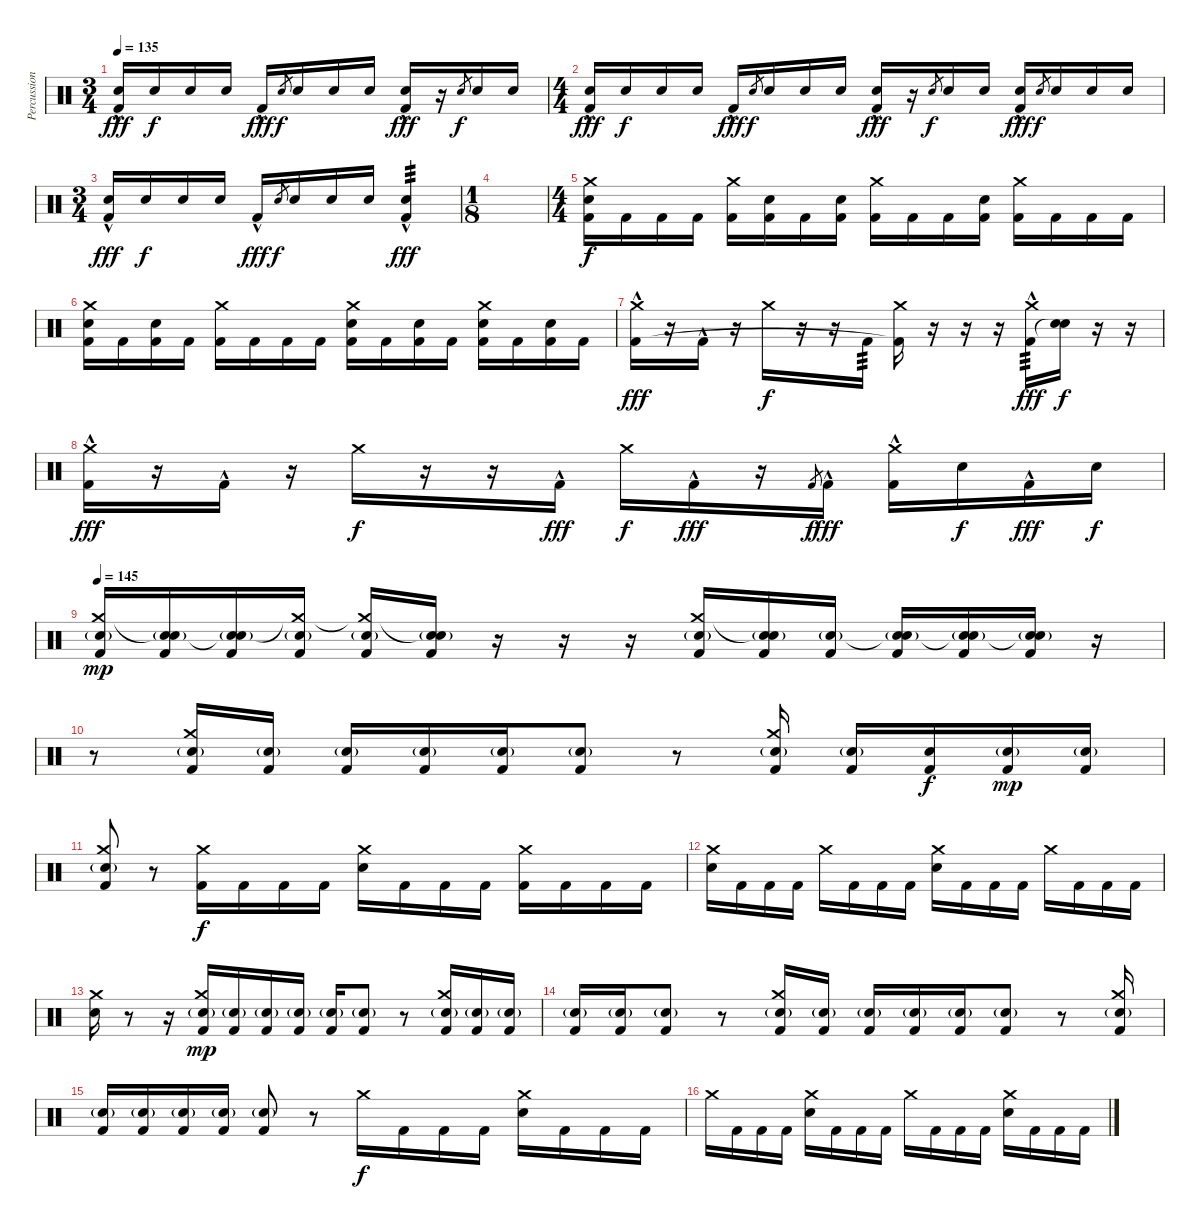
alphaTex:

\track ("Percussion" "Percussion") {instrument percussion}
\staff {score}
\articulation defaults
\ts (3 4)
\tempo 135
\clef neutral
\ks c
("Electric Snare (hit)" "Kick (hit) 2"{hac}).16{dy fff} "Electric Snare (hit)".16{dy f} "Electric Snare (hit)".16 "Electric Snare (hit)".16 "Kick (hit) 2"{hac}.16{dy fff} "Electric Snare (hit)".8{gr dy f} "Electric Snare (hit)".16 "Electric Snare (hit)".16 "Electric Snare (hit)".16 ("Electric Snare (hit)" "Kick (hit) 2"{hac}).16{dy fff} r.16 "Electric Snare (hit)".8{gr dy f} "Electric Snare (hit)".16 "Electric Snare (hit)".16 |
\ts (4 4)
("Electric Snare (hit)" "Kick (hit) 2"{hac}).16{dy fff} "Electric Snare (hit)".16{dy f} "Electric Snare (hit)".16 "Electric Snare (hit)".16 "Kick (hit) 2"{hac}.16{dy fff} "Electric Snare (hit)".8{gr dy f} "Electric Snare (hit)".16 "Electric Snare (hit)".16 "Electric Snare (hit)".16 ("Electric Snare (hit)" "Kick (hit) 2"{hac}).16{dy fff} r.16 "Electric Snare (hit)".8{gr dy f} "Electric Snare (hit)".16 "Electric Snare (hit)".16 ("Electric Snare (hit)" "Kick (hit) 2"{hac}).16{dy fff} "Electric Snare (hit)".8{gr dy f} "Electric Snare (hit)".16 "Electric Snare (hit)".16 "Electric Snare (hit)".16 |
\ts (3 4)
("Electric Snare (hit)" "Kick (hit) 2"{hac}).16{dy fff} "Electric Snare (hit)".16{dy f} "Electric Snare (hit)".16 "Electric Snare (hit)".16 "Kick (hit) 2"{hac}.16{dy fff} "Electric Snare (hit)".8{gr dy f} "Electric Snare (hit)".16 "Electric Snare (hit)".16 "Electric Snare (hit)".16 ("Electric Snare (hit)" "Kick (hit) 2"{hac}).4{tp 3 dy fff} |
\ts (1 8)
|
\ts (4 4)
("Crash medium (hit)" "Electric Snare (hit)" "Kick (hit) 2").16{dy f} "Kick (hit) 2".16 "Kick (hit) 2".16 "Kick (hit) 2".16 ("Crash medium (hit)" "Kick (hit) 2").16 ("Electric Snare (hit)" "Kick (hit) 2").16 "Kick (hit) 2".16 ("Electric Snare (hit)" "Kick (hit) 2").16 ("Crash medium (hit)" "Kick (hit) 2").16 "Kick (hit) 2".16 "Kick (hit) 2".16 ("Electric Snare (hit)" "Kick (hit) 2").16 ("Crash medium (hit)" "Kick (hit) 2").16 "Kick (hit) 2".16 "Kick (hit) 2".16 "Kick (hit) 2".16 |
("Crash medium (hit)" "Electric Snare (hit)" "Kick (hit) 2").16 "Kick (hit) 2".16 ("Electric Snare (hit)" "Kick (hit) 2").16 "Kick (hit) 2".16 ("Crash medium (hit)" "Kick (hit) 2").16 "Kick (hit) 2".16 "Kick (hit) 2".16 "Kick (hit) 2".16 ("Crash medium (hit)" "Electric Snare (hit)" "Kick (hit) 2").16 "Kick (hit) 2".16 ("Electric Snare (hit)" "Kick (hit) 2").16 "Kick (hit) 2".16 ("Crash medium (hit)" "Electric Snare (hit)" "Kick (hit) 2").16 "Kick (hit) 2".16 ("Electric Snare (hit)" "Kick (hit) 2").16 "Kick (hit) 2".16 |
("Crash medium (hit)" "Kick (hit) 2"{hac}).16{dy fff} r.16 "Kick (hit) 2"{hac}.16 r.16 "Crash medium (hit)".16{dy f} r.16 r.16 "Kick (hit) 2".16{tp 3} ("Crash medium (hit)" "Kick (hit) 2"{t}).16 r.16 r.16 r.16 ("Crash medium (hit)" "Kick (hit) 2"{hac}).16{tp 3 dy fff} ("Electric Snare (hit)" "Snare (hit)"{t}).16{dy f} r.16 r.16 |
("Crash medium (hit)" "Kick (hit) 2"{hac}).16{dy fff} r.16 "Kick (hit) 2"{hac}.16 r.16 "Crash medium (hit)".16{dy f} r.16 r.16 "Kick (hit) 2"{hac}.16{dy fff} "Crash medium (hit)".16{dy f} "Kick (hit) 2"{hac}.16{dy fff} r.16 "Kick (hit) 2".8{gr dy f} "Kick (hit) 2"{hac}.16{dy fff} ("Crash medium (hit)" "Kick (hit) 2"{hac}).16 "Snare (hit) 2".16{dy f} "Kick (hit) 2"{hac}.16{dy fff} "Snare (hit) 2".16{dy f} |
\tempo 145
("Crash medium (hit)" "Snare (hit) 2"{g} "Kick (hit) 2").16{dy mp} ("Snare (hit)"{t} "Snare (hit) 2"{g} "Kick (hit) 2").16 ("Snare (hit)"{t} "Snare (hit) 2"{g} "Kick (hit) 2").16 ("Crash medium (hit)"{t} "Snare (hit) 2"{g} "Kick (hit) 2").16 ("Crash medium (hit)"{t} "Snare (hit) 2"{g} "Kick (hit) 2").16 ("Snare (hit)"{t} "Snare (hit) 2"{g} "Kick (hit) 2").16 r.16 r.16 r.16 ("Crash medium (hit)" "Snare (hit) 2"{g} "Kick (hit) 2").16 ("Snare (hit)"{t} "Snare (hit) 2"{g} "Kick (hit) 2").16 ("Snare (hit) 2"{g} "Kick (hit) 2").16 ("Snare (hit)"{t} "Snare (hit) 2"{g} "Kick (hit) 2").16 ("Snare (hit)"{t} "Snare (hit) 2"{g} "Kick (hit) 2").16 ("Snare (hit)"{t} "Snare (hit) 2"{g} "Kick (hit) 2").16 r.16 |
r.8 ("Crash medium (hit)" "Snare (hit) 2"{g} "Kick (hit) 2").16 ("Snare (hit) 2"{g} "Kick (hit) 2").16 ("Snare (hit) 2"{g} "Kick (hit) 2").16 ("Snare (hit) 2"{g} "Kick (hit) 2").16 ("Snare (hit) 2"{g} "Kick (hit) 2").16 ("Snare (hit) 2"{g} "Kick (hit) 2").8 r.8 ("Crash medium (hit)" "Snare (hit) 2"{g} "Kick (hit) 2").16 ("Snare (hit) 2"{g} "Kick (hit) 2").16 ("Snare (hit) 2" "Kick (hit) 2").16{dy f} ("Snare (hit) 2"{g} "Kick (hit) 2").16{dy mp} ("Snare (hit) 2"{g} "Kick (hit) 2").16 |
("Crash medium (hit)" "Snare (hit) 2"{g} "Kick (hit) 2").8 r.8 ("Crash medium (hit)" "Kick (hit) 2").16{dy f} "Kick (hit) 2".16 "Kick (hit) 2".16 "Kick (hit) 2".16 ("Crash medium (hit)" "Electric Snare (hit)").16 "Kick (hit) 2".16 "Kick (hit) 2".16 "Kick (hit) 2".16 ("Crash medium (hit)" "Kick (hit) 2").16 "Kick (hit) 2".16 "Kick (hit) 2".16 "Kick (hit) 2".16 |
("Crash medium (hit)" "Electric Snare (hit)").16 "Kick (hit) 2".16 "Kick (hit) 2".16 "Kick (hit) 2".16 "Crash medium (hit)".16 "Kick (hit) 2".16 "Kick (hit) 2".16 "Kick (hit) 2".16 ("Crash medium (hit)" "Electric Snare (hit)").16 "Kick (hit) 2".16 "Kick (hit) 2".16 "Kick (hit) 2".16 "Crash medium (hit)".16 "Kick (hit) 2".16 "Kick (hit) 2".16 "Kick (hit) 2".16 |
("Crash medium (hit)" "Electric Snare (hit)").16 r.8 r.16 ("Crash medium (hit)" "Snare (hit) 2"{g} "Kick (hit) 2").16{dy mp} ("Snare (hit) 2"{g} "Kick (hit) 2").16 ("Snare (hit) 2"{g} "Kick (hit) 2").16 ("Snare (hit) 2"{g} "Kick (hit) 2").16 ("Snare (hit) 2"{g} "Kick (hit) 2").16 ("Snare (hit) 2"{g} "Kick (hit) 2").8 r.8 ("Crash medium (hit)" "Snare (hit) 2"{g} "Kick (hit) 2").16 ("Snare (hit) 2"{g} "Kick (hit) 2").16 ("Snare (hit) 2"{g} "Kick (hit) 2").16 |
("Snare (hit) 2"{g} "Kick (hit) 2").16 ("Snare (hit) 2"{g} "Kick (hit) 2").16 ("Snare (hit) 2"{g} "Kick (hit) 2").8 r.8 ("Crash medium (hit)" "Snare (hit) 2"{g} "Kick (hit) 2").16 ("Snare (hit) 2"{g} "Kick (hit) 2").16 ("Snare (hit) 2"{g} "Kick (hit) 2").16 ("Snare (hit) 2"{g} "Kick (hit) 2").16 ("Snare (hit) 2"{g} "Kick (hit) 2").16 ("Snare (hit) 2"{g} "Kick (hit) 2").8 r.8 ("Crash medium (hit)" "Snare (hit) 2"{g} "Kick (hit) 2").16 |
("Snare (hit) 2"{g} "Kick (hit) 2").16 ("Snare (hit) 2"{g} "Kick (hit) 2").16 ("Snare (hit) 2"{g} "Kick (hit) 2").16 ("Snare (hit) 2"{g} "Kick (hit) 2").16 ("Snare (hit) 2"{g} "Kick (hit) 2").8 r.8 "Crash medium (hit)".16{dy f} "Kick (hit) 2".16 "Kick (hit) 2".16 "Kick (hit) 2".16 ("Crash medium (hit)" "Electric Snare (hit)").16 "Kick (hit) 2".16 "Kick (hit) 2".16 "Kick (hit) 2".16 |
"Crash medium (hit)".16 "Kick (hit) 2".16 "Kick (hit) 2".16 "Kick (hit) 2".16 ("Crash medium (hit)" "Electric Snare (hit)").16 "Kick (hit) 2".16 "Kick (hit) 2".16 "Kick (hit) 2".16 "Crash medium (hit)".16 "Kick (hit) 2".16 "Kick (hit) 2".16 "Kick (hit) 2".16 ("Crash medium (hit)" "Electric Snare (hit)").16 "Kick (hit) 2".16 "Kick (hit) 2".16 "Kick (hit) 2".16
